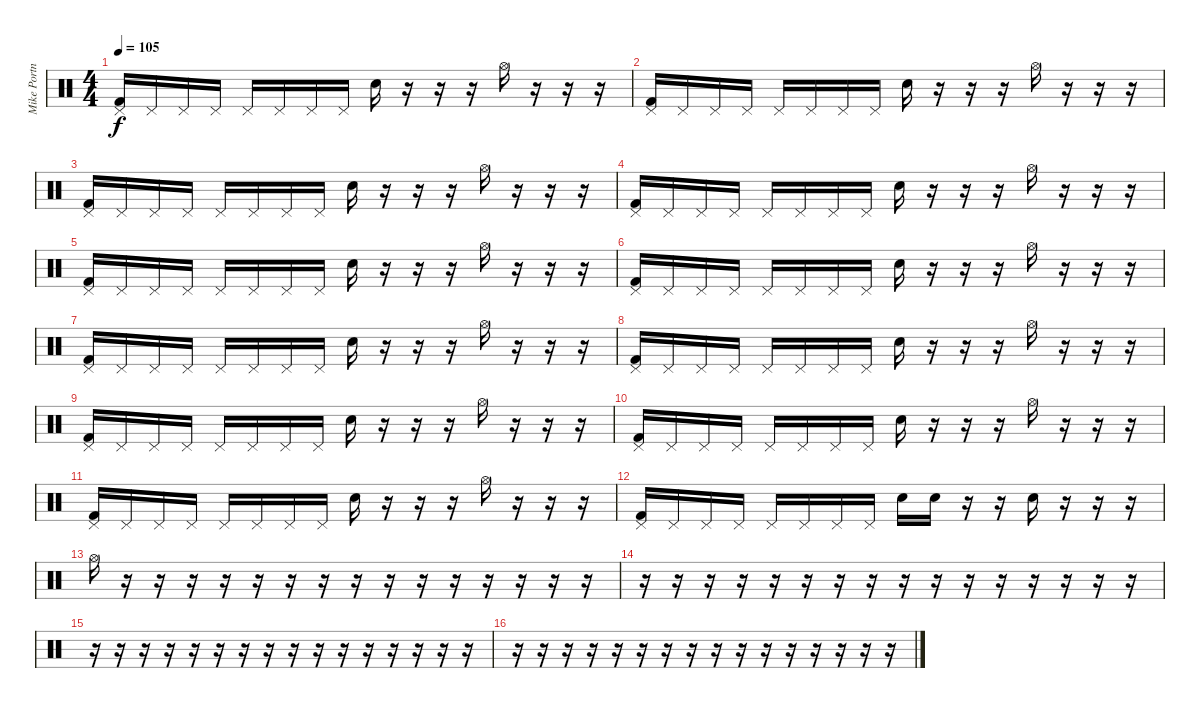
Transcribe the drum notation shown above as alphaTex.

\track ("Mike Portnoy" "Mike Portn") {instrument percussion}
\staff {score}
\articulation defaults
\ts (4 4)
\tempo 105
\clef neutral
\ks c
("Pedal Hi-Hat (hit)" "Kick (hit) 2").16{dy f} "Pedal Hi-Hat (hit)".16 "Pedal Hi-Hat (hit)".16 "Pedal Hi-Hat (hit)".16 "Pedal Hi-Hat (hit)".16 "Pedal Hi-Hat (hit)".16 "Pedal Hi-Hat (hit)".16 "Pedal Hi-Hat (hit)".16 "Electric Snare (hit)".16 r.16 r.16 r.16 "Hi-Hat (open)".16 r.16 r.16 r.16 |
("Pedal Hi-Hat (hit)" "Kick (hit) 2").16 "Pedal Hi-Hat (hit)".16 "Pedal Hi-Hat (hit)".16 "Pedal Hi-Hat (hit)".16 "Pedal Hi-Hat (hit)".16 "Pedal Hi-Hat (hit)".16 "Pedal Hi-Hat (hit)".16 "Pedal Hi-Hat (hit)".16 "Electric Snare (hit)".16 r.16 r.16 r.16 "Hi-Hat (open)".16 r.16 r.16 r.16 |
("Pedal Hi-Hat (hit)" "Kick (hit) 2").16 "Pedal Hi-Hat (hit)".16 "Pedal Hi-Hat (hit)".16 "Pedal Hi-Hat (hit)".16 "Pedal Hi-Hat (hit)".16 "Pedal Hi-Hat (hit)".16 "Pedal Hi-Hat (hit)".16 "Pedal Hi-Hat (hit)".16 "Electric Snare (hit)".16 r.16 r.16 r.16 "Hi-Hat (open)".16 r.16 r.16 r.16 |
("Pedal Hi-Hat (hit)" "Kick (hit) 2").16 "Pedal Hi-Hat (hit)".16 "Pedal Hi-Hat (hit)".16 "Pedal Hi-Hat (hit)".16 "Pedal Hi-Hat (hit)".16 "Pedal Hi-Hat (hit)".16 "Pedal Hi-Hat (hit)".16 "Pedal Hi-Hat (hit)".16 "Electric Snare (hit)".16 r.16 r.16 r.16 "Hi-Hat (open)".16 r.16 r.16 r.16 |
("Pedal Hi-Hat (hit)" "Kick (hit) 2").16 "Pedal Hi-Hat (hit)".16 "Pedal Hi-Hat (hit)".16 "Pedal Hi-Hat (hit)".16 "Pedal Hi-Hat (hit)".16 "Pedal Hi-Hat (hit)".16 "Pedal Hi-Hat (hit)".16 "Pedal Hi-Hat (hit)".16 "Electric Snare (hit)".16 r.16 r.16 r.16 "Hi-Hat (open)".16 r.16 r.16 r.16 |
("Pedal Hi-Hat (hit)" "Kick (hit) 2").16 "Pedal Hi-Hat (hit)".16 "Pedal Hi-Hat (hit)".16 "Pedal Hi-Hat (hit)".16 "Pedal Hi-Hat (hit)".16 "Pedal Hi-Hat (hit)".16 "Pedal Hi-Hat (hit)".16 "Pedal Hi-Hat (hit)".16 "Electric Snare (hit)".16 r.16 r.16 r.16 "Hi-Hat (open)".16 r.16 r.16 r.16 |
("Pedal Hi-Hat (hit)" "Kick (hit) 2").16 "Pedal Hi-Hat (hit)".16 "Pedal Hi-Hat (hit)".16 "Pedal Hi-Hat (hit)".16 "Pedal Hi-Hat (hit)".16 "Pedal Hi-Hat (hit)".16 "Pedal Hi-Hat (hit)".16 "Pedal Hi-Hat (hit)".16 "Electric Snare (hit)".16 r.16 r.16 r.16 "Hi-Hat (open)".16 r.16 r.16 r.16 |
("Pedal Hi-Hat (hit)" "Kick (hit) 2").16 "Pedal Hi-Hat (hit)".16 "Pedal Hi-Hat (hit)".16 "Pedal Hi-Hat (hit)".16 "Pedal Hi-Hat (hit)".16 "Pedal Hi-Hat (hit)".16 "Pedal Hi-Hat (hit)".16 "Pedal Hi-Hat (hit)".16 "Electric Snare (hit)".16 r.16 r.16 r.16 "Hi-Hat (open)".16 r.16 r.16 r.16 |
("Pedal Hi-Hat (hit)" "Kick (hit) 2").16 "Pedal Hi-Hat (hit)".16 "Pedal Hi-Hat (hit)".16 "Pedal Hi-Hat (hit)".16 "Pedal Hi-Hat (hit)".16 "Pedal Hi-Hat (hit)".16 "Pedal Hi-Hat (hit)".16 "Pedal Hi-Hat (hit)".16 "Electric Snare (hit)".16 r.16 r.16 r.16 "Hi-Hat (open)".16 r.16 r.16 r.16 |
("Pedal Hi-Hat (hit)" "Kick (hit) 2").16 "Pedal Hi-Hat (hit)".16 "Pedal Hi-Hat (hit)".16 "Pedal Hi-Hat (hit)".16 "Pedal Hi-Hat (hit)".16 "Pedal Hi-Hat (hit)".16 "Pedal Hi-Hat (hit)".16 "Pedal Hi-Hat (hit)".16 "Electric Snare (hit)".16 r.16 r.16 r.16 "Hi-Hat (open)".16 r.16 r.16 r.16 |
("Pedal Hi-Hat (hit)" "Kick (hit) 2").16 "Pedal Hi-Hat (hit)".16 "Pedal Hi-Hat (hit)".16 "Pedal Hi-Hat (hit)".16 "Pedal Hi-Hat (hit)".16 "Pedal Hi-Hat (hit)".16 "Pedal Hi-Hat (hit)".16 "Pedal Hi-Hat (hit)".16 "Electric Snare (hit)".16 r.16 r.16 r.16 "Hi-Hat (open)".16 r.16 r.16 r.16 |
("Pedal Hi-Hat (hit)" "Kick (hit) 2").16 "Pedal Hi-Hat (hit)".16 "Pedal Hi-Hat (hit)".16 "Pedal Hi-Hat (hit)".16 "Pedal Hi-Hat (hit)".16 "Pedal Hi-Hat (hit)".16 "Pedal Hi-Hat (hit)".16 "Pedal Hi-Hat (hit)".16 "Electric Snare (hit)".16 "Electric Snare (hit)".16 r.16 r.16 "Electric Snare (hit)".16 r.16 r.16 r.16 |
"Hi-Hat (open)".16 r.16 r.16 r.16 r.16 r.16 r.16 r.16 r.16 r.16 r.16 r.16 r.16 r.16 r.16 r.16 |
r.16 r.16 r.16 r.16 r.16 r.16 r.16 r.16 r.16 r.16 r.16 r.16 r.16 r.16 r.16 r.16 |
r.16 r.16 r.16 r.16 r.16 r.16 r.16 r.16 r.16 r.16 r.16 r.16 r.16 r.16 r.16 r.16 |
r.16 r.16 r.16 r.16 r.16 r.16 r.16 r.16 r.16 r.16 r.16 r.16 r.16 r.16 r.16 r.16
